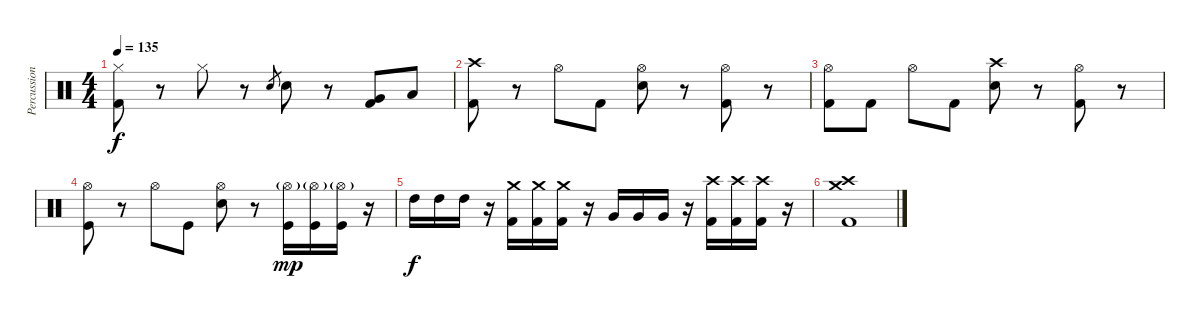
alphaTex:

\track ("Percussion" "Percussion") {instrument percussion}
\staff {score}
\articulation defaults
\ts (4 4)
\tempo 135
\clef neutral
\ks c
("Hi-Hat (closed)" "Kick (hit) 2").8{dy f} r.8 "Hi-Hat (closed)".8 r.8 "Electric Snare (hit)".8{gr} "Electric Snare (hit)".8 r.8 ("Very Low Tom (hit)" "Kick (hit) 2").8 "Low Floor Tom (hit)".8 |
("Crash high (hit)" "Kick (hit) 2").8 r.8 "Hi-Hat (open)".8 "Kick (hit) 2".8 ("Hi-Hat (open)" "Electric Snare (hit)").8 r.8 ("Hi-Hat (open)" "Kick (hit) 2").8 r.8 |
("Hi-Hat (open)" "Kick (hit) 2").8 "Kick (hit) 2".8 "Hi-Hat (open)".8 "Kick (hit) 2".8 ("Crash high (hit)" "Electric Snare (hit)").8 r.8 ("Hi-Hat (open)" "Kick (hit) 2").8 r.8 |
("Hi-Hat (open)" "Kick (hit)").8 r.8 "Hi-Hat (open)".8 "Kick (hit)".8 ("Hi-Hat (open)" "Electric Snare (hit)").8 r.8 ("Hi-Hat (open)"{g} "Kick (hit)").16{dy mp} ("Hi-Hat (open)"{g} "Kick (hit)").16 ("Hi-Hat (open)"{g} "Kick (hit)").16 r.16 |
"High Tom (hit)".16{dy f} "High Tom (hit)".16 "High Tom (hit)".16 r.16 ("Crash medium (hit)" "Kick (hit) 2").16 ("Crash medium (hit)" "Kick (hit) 2").16 ("Crash medium (hit)" "Kick (hit) 2").16 r.16 "Very Low Tom (hit)".16 "Very Low Tom (hit)".16 "Very Low Tom (hit)".16 r.16 ("Crash high (hit)" "Kick (hit) 2").16 ("Crash high (hit)" "Kick (hit) 2").16 ("Crash high (hit)" "Kick (hit) 2").16 r.16 |
("Crash medium (hit)" "Crash high (hit)" "Kick (hit) 2").1
